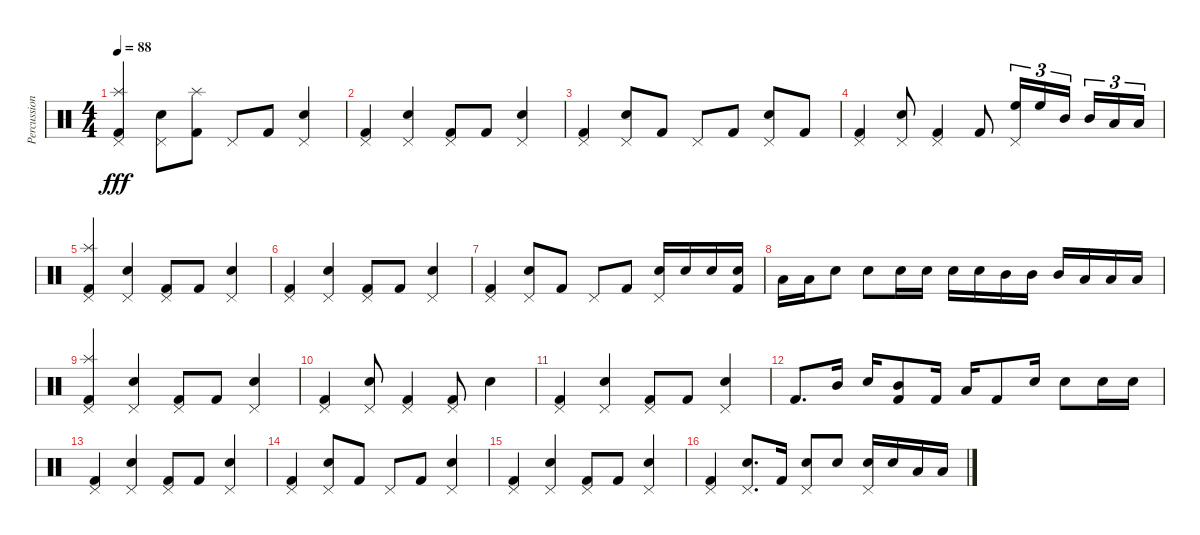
\track ("Percussion" "Percussion") {instrument percussion}
\staff {score}
\articulation defaults
\ts (4 4)
\tempo 88
\clef neutral
\ks c
("Pedal Hi-Hat (hit)" "Splash (hit)" "Kick (hit) 2").4{dy fff} ("Pedal Hi-Hat (hit)" "Snare (hit) 2").8 ("Splash (hit)" "Kick (hit) 2").8 "Pedal Hi-Hat (hit)".8 "Kick (hit) 2".8 ("Pedal Hi-Hat (hit)" "Snare (hit) 2").4 |
("Pedal Hi-Hat (hit)" "Kick (hit) 2").4 ("Pedal Hi-Hat (hit)" "Snare (hit) 2").4 ("Pedal Hi-Hat (hit)" "Kick (hit) 2").8 "Kick (hit) 2".8 ("Pedal Hi-Hat (hit)" "Snare (hit) 2").4 |
("Pedal Hi-Hat (hit)" "Kick (hit) 2").4 ("Pedal Hi-Hat (hit)" "Snare (hit) 2").8 "Kick (hit) 2".8 "Pedal Hi-Hat (hit)".8 "Kick (hit) 2".8 ("Pedal Hi-Hat (hit)" "Snare (hit) 2").8 "Kick (hit) 2".8 |
("Pedal Hi-Hat (hit)" "Kick (hit) 2").4 ("Pedal Hi-Hat (hit)" "Snare (hit) 2").8 ("Pedal Hi-Hat (hit)" "Kick (hit) 2").4 "Kick (hit) 2".8 ("Pedal Hi-Hat (hit)" "High Floor Tom (hit)").16{tu (3 2)} "High Floor Tom (hit)".16{tu (3 2)} "Mid Tom (hit)".16{tu (3 2) beam splitsecondary} "Mid Tom (hit)".16{tu (3 2)} "Low Tom (hit)".16{tu (3 2)} "Low Tom (hit)".16{tu (3 2)} |
("Pedal Hi-Hat (hit)" "Splash (hit)" "Kick (hit) 2").4 ("Pedal Hi-Hat (hit)" "Snare (hit) 2").4 ("Pedal Hi-Hat (hit)" "Kick (hit) 2").8 "Kick (hit) 2".8 ("Pedal Hi-Hat (hit)" "Snare (hit) 2").4 |
("Pedal Hi-Hat (hit)" "Kick (hit) 2").4 ("Pedal Hi-Hat (hit)" "Snare (hit) 2").4 ("Pedal Hi-Hat (hit)" "Kick (hit) 2").8 "Kick (hit) 2".8 ("Pedal Hi-Hat (hit)" "Snare (hit) 2").4 |
("Pedal Hi-Hat (hit)" "Kick (hit) 2").4 ("Pedal Hi-Hat (hit)" "Snare (hit) 2").8 "Kick (hit) 2".8 "Pedal Hi-Hat (hit)".8 "Kick (hit) 2".8 ("Pedal Hi-Hat (hit)" "Snare (hit) 2").16 "Snare (hit) 2".16 "Snare (hit) 2".16 ("Snare (hit) 2" "Kick (hit) 2").16 |
"Low Tom (hit)".16 "Low Tom (hit)".16 "Snare (hit) 2".8 "Snare (hit) 2".8 "Snare (hit) 2".16 "Snare (hit) 2".16 "Snare (hit) 2".16 "Snare (hit) 2".16 "Mid Tom (hit)".16 "Mid Tom (hit)".16 "Mid Tom (hit)".16 "Low Tom (hit)".16 "Low Tom (hit)".16 "Low Tom (hit)".16 |
("Pedal Hi-Hat (hit)" "Splash (hit)" "Kick (hit) 2").4 ("Pedal Hi-Hat (hit)" "Snare (hit) 2").4 ("Pedal Hi-Hat (hit)" "Kick (hit) 2").8 "Kick (hit) 2".8 ("Pedal Hi-Hat (hit)" "Snare (hit) 2").4 |
("Pedal Hi-Hat (hit)" "Kick (hit) 2").4 ("Pedal Hi-Hat (hit)" "Snare (hit) 2").8 ("Pedal Hi-Hat (hit)" "Kick (hit) 2").4 ("Pedal Hi-Hat (hit)" "Kick (hit) 2").8 "Snare (hit) 2".4 |
("Pedal Hi-Hat (hit)" "Kick (hit) 2").4 ("Pedal Hi-Hat (hit)" "Snare (hit) 2").4 ("Pedal Hi-Hat (hit)" "Kick (hit) 2").8 "Kick (hit) 2".8 ("Pedal Hi-Hat (hit)" "Snare (hit) 2").4 |
"Kick (hit) 2".8{d} "Mid Tom (hit)".16 "Snare (hit) 2".16 ("Mid Tom (hit)" "Kick (hit) 2").8 "Kick (hit) 2".16 "Low Tom (hit)".16 "Kick (hit) 2".8 "Snare (hit) 2".16 "Snare (hit) 2".8 "Snare (hit) 2".16 "Snare (hit) 2".16 |
("Pedal Hi-Hat (hit)" "Kick (hit) 2").4 ("Pedal Hi-Hat (hit)" "Snare (hit) 2").4 ("Pedal Hi-Hat (hit)" "Kick (hit) 2").8 "Kick (hit) 2".8 ("Pedal Hi-Hat (hit)" "Snare (hit) 2").4 |
("Pedal Hi-Hat (hit)" "Kick (hit) 2").4 ("Pedal Hi-Hat (hit)" "Snare (hit) 2").8 "Kick (hit) 2".8 "Pedal Hi-Hat (hit)".8 "Kick (hit) 2".8 ("Pedal Hi-Hat (hit)" "Snare (hit) 2").4 |
("Pedal Hi-Hat (hit)" "Kick (hit) 2").4 ("Pedal Hi-Hat (hit)" "Snare (hit) 2").4 ("Pedal Hi-Hat (hit)" "Kick (hit) 2").8 "Kick (hit) 2".8 ("Pedal Hi-Hat (hit)" "Snare (hit) 2").4 |
("Pedal Hi-Hat (hit)" "Kick (hit) 2").4 ("Pedal Hi-Hat (hit)" "Snare (hit) 2").8{d} "Kick (hit) 2".16 ("Pedal Hi-Hat (hit)" "Snare (hit) 2").8 "Snare (hit) 2".8 ("Pedal Hi-Hat (hit)" "Snare (hit) 2").16 "Snare (hit) 2".16 "Low Tom (hit)".16 "Low Tom (hit)".16
